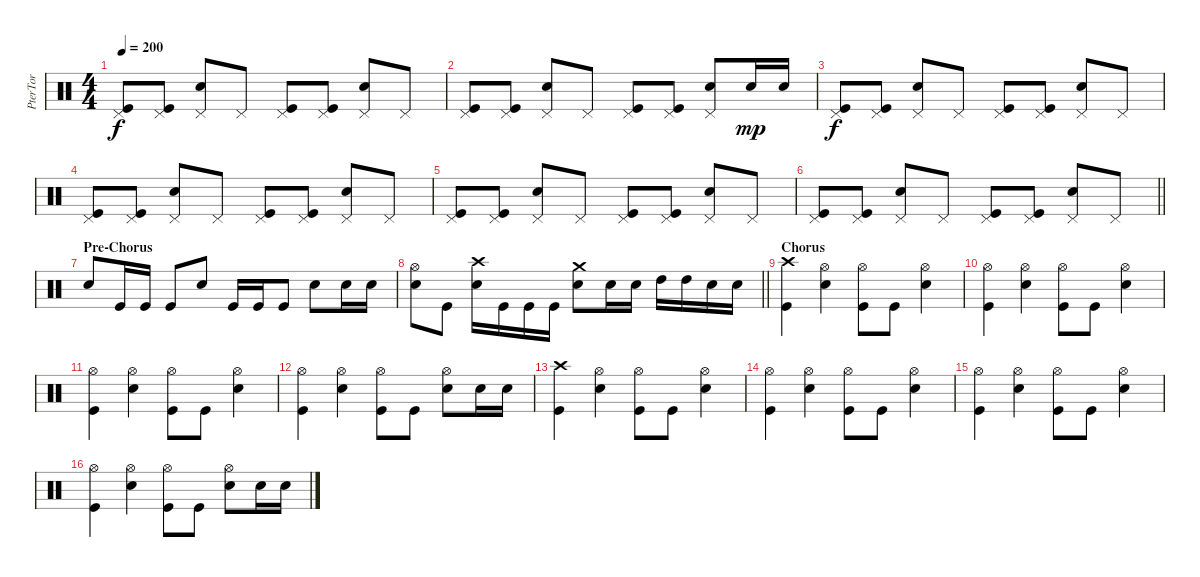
\track ("PterTor" "PterTor") {instrument percussion}
\staff {score}
\articulation defaults
\ts (4 4)
\tempo 200
\clef neutral
\ks c
("Pedal Hi-Hat (hit)" "Kick (hit)").8{dy f} ("Pedal Hi-Hat (hit)" "Kick (hit)").8 ("Pedal Hi-Hat (hit)" "Snare (hit) 2").8 "Pedal Hi-Hat (hit)".8 ("Pedal Hi-Hat (hit)" "Kick (hit)").8 ("Pedal Hi-Hat (hit)" "Kick (hit)").8 ("Pedal Hi-Hat (hit)" "Snare (hit) 2").8 "Pedal Hi-Hat (hit)".8 |
("Pedal Hi-Hat (hit)" "Kick (hit)").8 ("Pedal Hi-Hat (hit)" "Kick (hit)").8 ("Pedal Hi-Hat (hit)" "Snare (hit) 2").8 "Pedal Hi-Hat (hit)".8 ("Pedal Hi-Hat (hit)" "Kick (hit)").8 ("Pedal Hi-Hat (hit)" "Kick (hit)").8 ("Pedal Hi-Hat (hit)" "Snare (hit) 2").8 "Snare (hit) 2".16{dy mp} "Snare (hit) 2".16 |
("Pedal Hi-Hat (hit)" "Kick (hit)").8{dy f} ("Pedal Hi-Hat (hit)" "Kick (hit)").8 ("Pedal Hi-Hat (hit)" "Snare (hit) 2").8 "Pedal Hi-Hat (hit)".8 ("Pedal Hi-Hat (hit)" "Kick (hit)").8 ("Pedal Hi-Hat (hit)" "Kick (hit)").8 ("Pedal Hi-Hat (hit)" "Snare (hit) 2").8 "Pedal Hi-Hat (hit)".8 |
("Pedal Hi-Hat (hit)" "Kick (hit)").8 ("Pedal Hi-Hat (hit)" "Kick (hit)").8 ("Pedal Hi-Hat (hit)" "Snare (hit) 2").8 "Pedal Hi-Hat (hit)".8 ("Pedal Hi-Hat (hit)" "Kick (hit)").8 ("Pedal Hi-Hat (hit)" "Kick (hit)").8 ("Pedal Hi-Hat (hit)" "Snare (hit) 2").8 "Pedal Hi-Hat (hit)".8 |
("Pedal Hi-Hat (hit)" "Kick (hit)").8 ("Pedal Hi-Hat (hit)" "Kick (hit)").8 ("Pedal Hi-Hat (hit)" "Snare (hit) 2").8 "Pedal Hi-Hat (hit)".8 ("Pedal Hi-Hat (hit)" "Kick (hit)").8 ("Pedal Hi-Hat (hit)" "Kick (hit)").8 ("Pedal Hi-Hat (hit)" "Snare (hit) 2").8 "Pedal Hi-Hat (hit)".8 |
\barLineRight lightlight
("Pedal Hi-Hat (hit)" "Kick (hit)").8 ("Pedal Hi-Hat (hit)" "Kick (hit)").8 ("Pedal Hi-Hat (hit)" "Snare (hit) 2").8 "Pedal Hi-Hat (hit)".8 ("Pedal Hi-Hat (hit)" "Kick (hit)").8 ("Pedal Hi-Hat (hit)" "Kick (hit)").8 ("Pedal Hi-Hat (hit)" "Snare (hit) 2").8 "Pedal Hi-Hat (hit)".8 |
\section ("" "Pre-Chorus")
"Snare (hit) 2".8 "Kick (hit)".16 "Kick (hit)".16 "Kick (hit)".8 "Snare (hit) 2".8 "Kick (hit)".16 "Kick (hit)".16 "Kick (hit)".8 "Snare (hit) 2".8 "Snare (hit) 2".16 "Snare (hit) 2".16 |
\barLineRight lightlight
("Hi-Hat (open)" "Snare (hit) 2").8 "Kick (hit)".8 ("Crash high (hit)" "Snare (hit) 2").16 "Kick (hit)".16 "Kick (hit)".16 "Kick (hit)".16 ("Crash medium (hit)" "Snare (hit) 2").8 "Snare (hit) 2".16 "Snare (hit) 2".16 "High Tom (hit)".16 "High Tom (hit)".16 "Snare (hit) 2".16 "Snare (hit) 2".16 |
\section ("" "Chorus")
("Crash high (hit)" "Kick (hit)").4 ("Hi-Hat (open)" "Snare (hit) 2").4 ("Hi-Hat (open)" "Kick (hit)").8 "Kick (hit)".8 ("Hi-Hat (open)" "Snare (hit) 2").4 |
("Hi-Hat (open)" "Kick (hit)").4 ("Hi-Hat (open)" "Snare (hit) 2").4 ("Hi-Hat (open)" "Kick (hit)").8 "Kick (hit)".8 ("Hi-Hat (open)" "Snare (hit) 2").4 |
("Hi-Hat (open)" "Kick (hit)").4 ("Hi-Hat (open)" "Snare (hit) 2").4 ("Hi-Hat (open)" "Kick (hit)").8 "Kick (hit)".8 ("Hi-Hat (open)" "Snare (hit) 2").4 |
("Hi-Hat (open)" "Kick (hit)").4 ("Hi-Hat (open)" "Snare (hit) 2").4 ("Hi-Hat (open)" "Kick (hit)").8 "Kick (hit)".8 ("Hi-Hat (open)" "Snare (hit) 2").8 "Snare (hit) 2".16 "Snare (hit) 2".16 |
("Crash high (hit)" "Kick (hit)").4 ("Hi-Hat (open)" "Snare (hit) 2").4 ("Hi-Hat (open)" "Kick (hit)").8 "Kick (hit)".8 ("Hi-Hat (open)" "Snare (hit) 2").4 |
("Hi-Hat (open)" "Kick (hit)").4 ("Hi-Hat (open)" "Snare (hit) 2").4 ("Hi-Hat (open)" "Kick (hit)").8 "Kick (hit)".8 ("Hi-Hat (open)" "Snare (hit) 2").4 |
("Hi-Hat (open)" "Kick (hit)").4 ("Hi-Hat (open)" "Snare (hit) 2").4 ("Hi-Hat (open)" "Kick (hit)").8 "Kick (hit)".8 ("Hi-Hat (open)" "Snare (hit) 2").4 |
("Hi-Hat (open)" "Kick (hit)").4 ("Hi-Hat (open)" "Snare (hit) 2").4 ("Hi-Hat (open)" "Kick (hit)").8 "Kick (hit)".8 ("Hi-Hat (open)" "Snare (hit) 2").8 "Snare (hit) 2".16 "Snare (hit) 2".16
